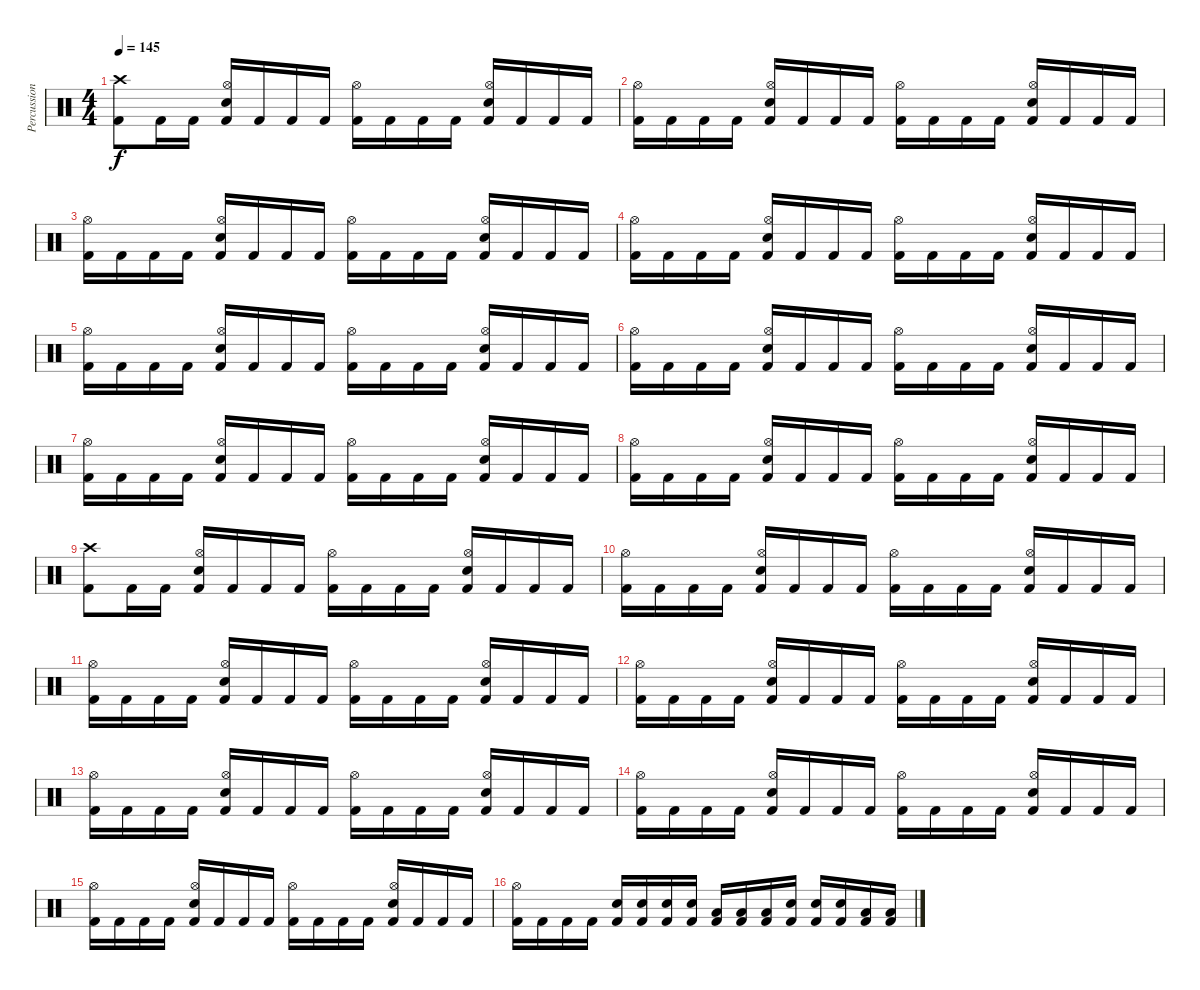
\track ("Percussion" "Percussion") {instrument percussion}
\staff {score}
\articulation defaults
\ts (4 4)
\tempo 145
\clef neutral
\ks c
("Crash high (hit)" "Kick (hit) 2").8{dy f} "Kick (hit) 2".16 "Kick (hit) 2".16 ("Hi-Hat (open)" "Snare (hit) 2" "Kick (hit) 2").16 "Kick (hit) 2".16 "Kick (hit) 2".16 "Kick (hit) 2".16 ("Hi-Hat (open)" "Kick (hit) 2").16 "Kick (hit) 2".16 "Kick (hit) 2".16 "Kick (hit) 2".16 ("Hi-Hat (open)" "Snare (hit) 2" "Kick (hit) 2").16 "Kick (hit) 2".16 "Kick (hit) 2".16 "Kick (hit) 2".16 |
("Hi-Hat (open)" "Kick (hit) 2").16 "Kick (hit) 2".16 "Kick (hit) 2".16 "Kick (hit) 2".16 ("Hi-Hat (open)" "Snare (hit) 2" "Kick (hit) 2").16 "Kick (hit) 2".16 "Kick (hit) 2".16 "Kick (hit) 2".16 ("Hi-Hat (open)" "Kick (hit) 2").16 "Kick (hit) 2".16 "Kick (hit) 2".16 "Kick (hit) 2".16 ("Hi-Hat (open)" "Snare (hit) 2" "Kick (hit) 2").16 "Kick (hit) 2".16 "Kick (hit) 2".16 "Kick (hit) 2".16 |
("Hi-Hat (open)" "Kick (hit) 2").16 "Kick (hit) 2".16 "Kick (hit) 2".16 "Kick (hit) 2".16 ("Hi-Hat (open)" "Snare (hit) 2" "Kick (hit) 2").16 "Kick (hit) 2".16 "Kick (hit) 2".16 "Kick (hit) 2".16 ("Hi-Hat (open)" "Kick (hit) 2").16 "Kick (hit) 2".16 "Kick (hit) 2".16 "Kick (hit) 2".16 ("Hi-Hat (open)" "Snare (hit) 2" "Kick (hit) 2").16 "Kick (hit) 2".16 "Kick (hit) 2".16 "Kick (hit) 2".16 |
("Hi-Hat (open)" "Kick (hit) 2").16 "Kick (hit) 2".16 "Kick (hit) 2".16 "Kick (hit) 2".16 ("Hi-Hat (open)" "Snare (hit) 2" "Kick (hit) 2").16 "Kick (hit) 2".16 "Kick (hit) 2".16 "Kick (hit) 2".16 ("Hi-Hat (open)" "Kick (hit) 2").16 "Kick (hit) 2".16 "Kick (hit) 2".16 "Kick (hit) 2".16 ("Hi-Hat (open)" "Snare (hit) 2" "Kick (hit) 2").16 "Kick (hit) 2".16 "Kick (hit) 2".16 "Kick (hit) 2".16 |
("Hi-Hat (open)" "Kick (hit) 2").16 "Kick (hit) 2".16 "Kick (hit) 2".16 "Kick (hit) 2".16 ("Hi-Hat (open)" "Snare (hit) 2" "Kick (hit) 2").16 "Kick (hit) 2".16 "Kick (hit) 2".16 "Kick (hit) 2".16 ("Hi-Hat (open)" "Kick (hit) 2").16 "Kick (hit) 2".16 "Kick (hit) 2".16 "Kick (hit) 2".16 ("Hi-Hat (open)" "Snare (hit) 2" "Kick (hit) 2").16 "Kick (hit) 2".16 "Kick (hit) 2".16 "Kick (hit) 2".16 |
("Hi-Hat (open)" "Kick (hit) 2").16 "Kick (hit) 2".16 "Kick (hit) 2".16 "Kick (hit) 2".16 ("Hi-Hat (open)" "Snare (hit) 2" "Kick (hit) 2").16 "Kick (hit) 2".16 "Kick (hit) 2".16 "Kick (hit) 2".16 ("Hi-Hat (open)" "Kick (hit) 2").16 "Kick (hit) 2".16 "Kick (hit) 2".16 "Kick (hit) 2".16 ("Hi-Hat (open)" "Snare (hit) 2" "Kick (hit) 2").16 "Kick (hit) 2".16 "Kick (hit) 2".16 "Kick (hit) 2".16 |
("Hi-Hat (open)" "Kick (hit) 2").16 "Kick (hit) 2".16 "Kick (hit) 2".16 "Kick (hit) 2".16 ("Hi-Hat (open)" "Snare (hit) 2" "Kick (hit) 2").16 "Kick (hit) 2".16 "Kick (hit) 2".16 "Kick (hit) 2".16 ("Hi-Hat (open)" "Kick (hit) 2").16 "Kick (hit) 2".16 "Kick (hit) 2".16 "Kick (hit) 2".16 ("Hi-Hat (open)" "Snare (hit) 2" "Kick (hit) 2").16 "Kick (hit) 2".16 "Kick (hit) 2".16 "Kick (hit) 2".16 |
("Hi-Hat (open)" "Kick (hit) 2").16 "Kick (hit) 2".16 "Kick (hit) 2".16 "Kick (hit) 2".16 ("Hi-Hat (open)" "Snare (hit) 2" "Kick (hit) 2").16 "Kick (hit) 2".16 "Kick (hit) 2".16 "Kick (hit) 2".16 ("Hi-Hat (open)" "Kick (hit) 2").16 "Kick (hit) 2".16 "Kick (hit) 2".16 "Kick (hit) 2".16 ("Hi-Hat (open)" "Snare (hit) 2" "Kick (hit) 2").16 "Kick (hit) 2".16 "Kick (hit) 2".16 "Kick (hit) 2".16 |
("Crash high (hit)" "Kick (hit) 2").8 "Kick (hit) 2".16 "Kick (hit) 2".16 ("Hi-Hat (open)" "Snare (hit) 2" "Kick (hit) 2").16 "Kick (hit) 2".16 "Kick (hit) 2".16 "Kick (hit) 2".16 ("Hi-Hat (open)" "Kick (hit) 2").16 "Kick (hit) 2".16 "Kick (hit) 2".16 "Kick (hit) 2".16 ("Hi-Hat (open)" "Snare (hit) 2" "Kick (hit) 2").16 "Kick (hit) 2".16 "Kick (hit) 2".16 "Kick (hit) 2".16 |
("Hi-Hat (open)" "Kick (hit) 2").16 "Kick (hit) 2".16 "Kick (hit) 2".16 "Kick (hit) 2".16 ("Hi-Hat (open)" "Snare (hit) 2" "Kick (hit) 2").16 "Kick (hit) 2".16 "Kick (hit) 2".16 "Kick (hit) 2".16 ("Hi-Hat (open)" "Kick (hit) 2").16 "Kick (hit) 2".16 "Kick (hit) 2".16 "Kick (hit) 2".16 ("Hi-Hat (open)" "Snare (hit) 2" "Kick (hit) 2").16 "Kick (hit) 2".16 "Kick (hit) 2".16 "Kick (hit) 2".16 |
("Hi-Hat (open)" "Kick (hit) 2").16 "Kick (hit) 2".16 "Kick (hit) 2".16 "Kick (hit) 2".16 ("Hi-Hat (open)" "Snare (hit) 2" "Kick (hit) 2").16 "Kick (hit) 2".16 "Kick (hit) 2".16 "Kick (hit) 2".16 ("Hi-Hat (open)" "Kick (hit) 2").16 "Kick (hit) 2".16 "Kick (hit) 2".16 "Kick (hit) 2".16 ("Hi-Hat (open)" "Snare (hit) 2" "Kick (hit) 2").16 "Kick (hit) 2".16 "Kick (hit) 2".16 "Kick (hit) 2".16 |
("Hi-Hat (open)" "Kick (hit) 2").16 "Kick (hit) 2".16 "Kick (hit) 2".16 "Kick (hit) 2".16 ("Hi-Hat (open)" "Snare (hit) 2" "Kick (hit) 2").16 "Kick (hit) 2".16 "Kick (hit) 2".16 "Kick (hit) 2".16 ("Hi-Hat (open)" "Kick (hit) 2").16 "Kick (hit) 2".16 "Kick (hit) 2".16 "Kick (hit) 2".16 ("Hi-Hat (open)" "Snare (hit) 2" "Kick (hit) 2").16 "Kick (hit) 2".16 "Kick (hit) 2".16 "Kick (hit) 2".16 |
("Hi-Hat (open)" "Kick (hit) 2").16 "Kick (hit) 2".16 "Kick (hit) 2".16 "Kick (hit) 2".16 ("Hi-Hat (open)" "Snare (hit) 2" "Kick (hit) 2").16 "Kick (hit) 2".16 "Kick (hit) 2".16 "Kick (hit) 2".16 ("Hi-Hat (open)" "Kick (hit) 2").16 "Kick (hit) 2".16 "Kick (hit) 2".16 "Kick (hit) 2".16 ("Hi-Hat (open)" "Snare (hit) 2" "Kick (hit) 2").16 "Kick (hit) 2".16 "Kick (hit) 2".16 "Kick (hit) 2".16 |
("Hi-Hat (open)" "Kick (hit) 2").16 "Kick (hit) 2".16 "Kick (hit) 2".16 "Kick (hit) 2".16 ("Hi-Hat (open)" "Snare (hit) 2" "Kick (hit) 2").16 "Kick (hit) 2".16 "Kick (hit) 2".16 "Kick (hit) 2".16 ("Hi-Hat (open)" "Kick (hit) 2").16 "Kick (hit) 2".16 "Kick (hit) 2".16 "Kick (hit) 2".16 ("Hi-Hat (open)" "Snare (hit) 2" "Kick (hit) 2").16 "Kick (hit) 2".16 "Kick (hit) 2".16 "Kick (hit) 2".16 |
("Hi-Hat (open)" "Kick (hit) 2").16 "Kick (hit) 2".16 "Kick (hit) 2".16 "Kick (hit) 2".16 ("Hi-Hat (open)" "Snare (hit) 2" "Kick (hit) 2").16 "Kick (hit) 2".16 "Kick (hit) 2".16 "Kick (hit) 2".16 ("Hi-Hat (open)" "Kick (hit) 2").16 "Kick (hit) 2".16 "Kick (hit) 2".16 "Kick (hit) 2".16 ("Hi-Hat (open)" "Snare (hit) 2" "Kick (hit) 2").16 "Kick (hit) 2".16 "Kick (hit) 2".16 "Kick (hit) 2".16 |
("Hi-Hat (open)" "Kick (hit) 2").16 "Kick (hit) 2".16 "Kick (hit) 2".16 "Kick (hit) 2".16 ("Snare (hit) 2" "Kick (hit) 2").16 ("Snare (hit) 2" "Kick (hit) 2").16 ("Snare (hit) 2" "Kick (hit) 2").16 ("Snare (hit) 2" "Kick (hit) 2").16 ("Low Floor Tom (hit)" "Kick (hit) 2").16 ("Low Floor Tom (hit)" "Kick (hit) 2").16 ("Low Floor Tom (hit)" "Kick (hit) 2").16 ("Snare (hit)" "Kick (hit) 2").16 ("Snare (hit) 2" "Kick (hit) 2").16 ("Snare (hit) 2" "Kick (hit) 2").16 ("Low Floor Tom (hit)" "Kick (hit) 2").16 ("Low Floor Tom (hit)" "Kick (hit) 2").16
